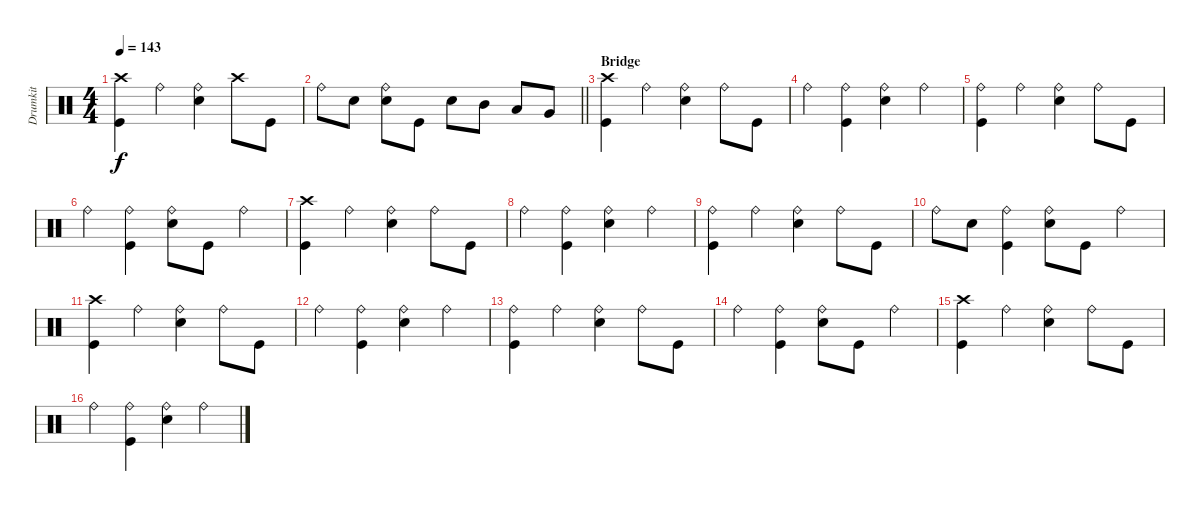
\track ("Drumkit" "Drumkit") {instrument percussion}
\staff {score}
\articulation defaults
\ts (4 4)
\tempo 143
\clef neutral
\ks c
("Crash high (hit)" "Kick (hit)").4{dy f} "Ride (bell)".4 ("Snare (hit) 2" "Ride (bell)").4 "Crash high (hit)".8 "Kick (hit)".8 |
\barLineRight lightlight "Ride (bell)".8 "Snare (hit) 2".8
("Snare (hit) 2" "Ride (bell)").8 "Kick (hit)".8 "Snare (hit) 2".8 "Mid Tom (hit)".8 "Low Tom (hit)".8 "Very Low Tom (hit)".8 |
\section ("" "Bridge")
("Crash high (hit)" "Kick (hit)").4 "Ride (bell)".4 ("Snare (hit) 2" "Ride (bell)").4 "Ride (bell)".8 "Kick (hit)".8 |
"Ride (bell)".4 ("Kick (hit)" "Ride (bell)").4 ("Snare (hit) 2" "Ride (bell)").4 "Ride (bell)".4 |
("Kick (hit)" "Ride (bell)").4 "Ride (bell)".4 ("Snare (hit) 2" "Ride (bell)").4 "Ride (bell)".8 "Kick (hit)".8 |
"Ride (bell)".4 ("Kick (hit)" "Ride (bell)").4 ("Snare (hit) 2" "Ride (bell)").8 "Kick (hit)".8 "Ride (bell)".4 |
("Crash high (hit)" "Kick (hit)").4 "Ride (bell)".4 ("Snare (hit) 2" "Ride (bell)").4 "Ride (bell)".8 "Kick (hit)".8 |
"Ride (bell)".4 ("Kick (hit)" "Ride (bell)").4 ("Snare (hit) 2" "Ride (bell)").4 "Ride (bell)".4 |
("Kick (hit)" "Ride (bell)").4 "Ride (bell)".4 ("Snare (hit) 2" "Ride (bell)").4 "Ride (bell)".8 "Kick (hit)".8 |
"Ride (bell)".8 "Snare (hit) 2".8 ("Ride (bell)" "Kick (hit)").4 ("Snare (hit) 2" "Ride (bell)").8 "Kick (hit)".8 "Ride (bell)".4 |
("Crash high (hit)" "Kick (hit)").4 "Ride (bell)".4 ("Snare (hit) 2" "Ride (bell)").4 "Ride (bell)".8 "Kick (hit)".8 |
"Ride (bell)".4 ("Kick (hit)" "Ride (bell)").4 ("Snare (hit) 2" "Ride (bell)").4 "Ride (bell)".4 |
("Kick (hit)" "Ride (bell)").4 "Ride (bell)".4 ("Snare (hit) 2" "Ride (bell)").4 "Ride (bell)".8 "Kick (hit)".8 |
"Ride (bell)".4 ("Kick (hit)" "Ride (bell)").4 ("Snare (hit) 2" "Ride (bell)").8 "Kick (hit)".8 "Ride (bell)".4 |
("Crash high (hit)" "Kick (hit)").4 "Ride (bell)".4 ("Snare (hit) 2" "Ride (bell)").4 "Ride (bell)".8 "Kick (hit)".8 |
"Ride (bell)".4 ("Kick (hit)" "Ride (bell)").4 ("Snare (hit) 2" "Ride (bell)").4 "Ride (bell)".4
